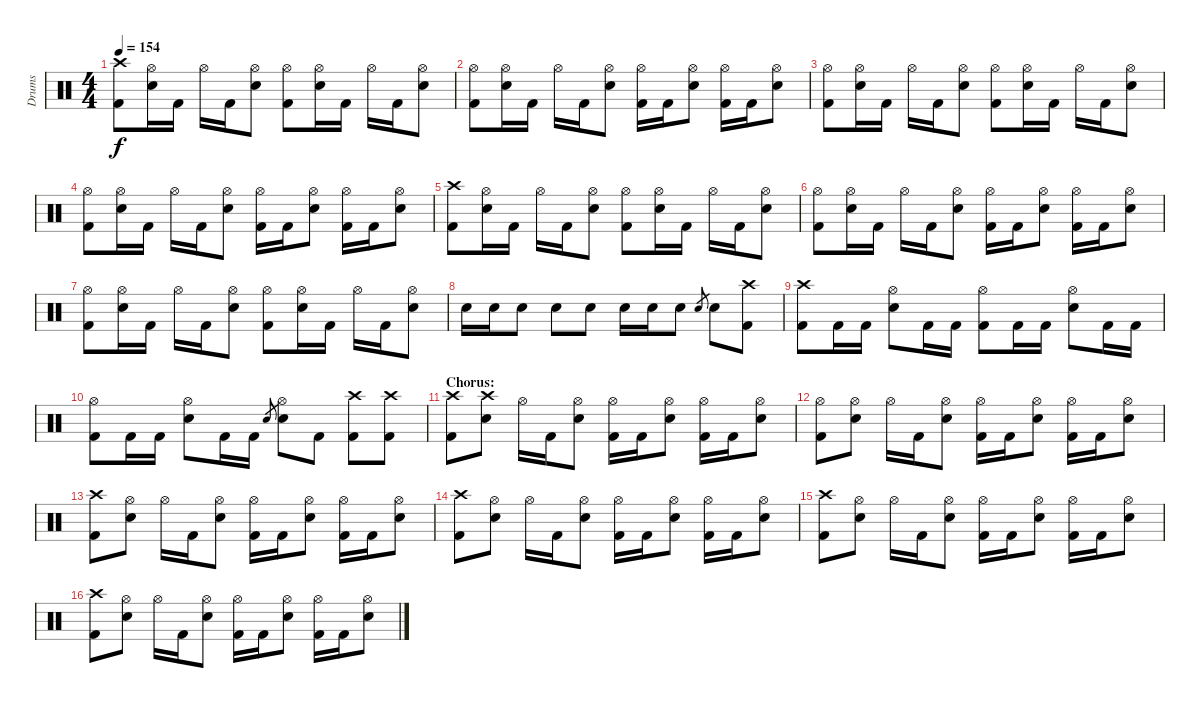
\track ("Drums" "Drums") {instrument percussion}
\staff {score}
\articulation defaults
\ts (4 4)
\tempo 154
\clef neutral
\ks c
("Crash high (hit)" "Kick (hit) 2").8{dy f} ("Hi-Hat (open)" "Snare (hit) 2").16 "Kick (hit) 2".16 "Hi-Hat (open)".16 "Kick (hit) 2".16 ("Hi-Hat (open)" "Snare (hit) 2").8 ("Hi-Hat (open)" "Kick (hit) 2").8 ("Hi-Hat (open)" "Snare (hit) 2").16 "Kick (hit) 2".16 "Hi-Hat (open)".16 "Kick (hit) 2".16 ("Hi-Hat (open)" "Snare (hit) 2").8 |
("Hi-Hat (open)" "Kick (hit) 2").8 ("Hi-Hat (open)" "Snare (hit) 2").16 "Kick (hit) 2".16 "Hi-Hat (open)".16 "Kick (hit) 2".16 ("Hi-Hat (open)" "Snare (hit) 2").8 ("Hi-Hat (open)" "Kick (hit) 2").16 "Kick (hit) 2".16 ("Hi-Hat (open)" "Snare (hit) 2").8 ("Hi-Hat (open)" "Kick (hit) 2").16 "Kick (hit) 2".16 ("Hi-Hat (open)" "Snare (hit) 2").8 |
("Hi-Hat (open)" "Kick (hit) 2").8 ("Hi-Hat (open)" "Snare (hit) 2").16 "Kick (hit) 2".16 "Hi-Hat (open)".16 "Kick (hit) 2".16 ("Hi-Hat (open)" "Snare (hit) 2").8 ("Hi-Hat (open)" "Kick (hit) 2").8 ("Hi-Hat (open)" "Snare (hit) 2").16 "Kick (hit) 2".16 "Hi-Hat (open)".16 "Kick (hit) 2".16 ("Hi-Hat (open)" "Snare (hit) 2").8 |
("Hi-Hat (open)" "Kick (hit) 2").8 ("Hi-Hat (open)" "Snare (hit) 2").16 "Kick (hit) 2".16 "Hi-Hat (open)".16 "Kick (hit) 2".16 ("Hi-Hat (open)" "Snare (hit) 2").8 ("Hi-Hat (open)" "Kick (hit) 2").16 "Kick (hit) 2".16 ("Hi-Hat (open)" "Snare (hit) 2").8 ("Hi-Hat (open)" "Kick (hit) 2").16 "Kick (hit) 2".16 ("Hi-Hat (open)" "Snare (hit) 2").8 |
("Crash high (hit)" "Kick (hit) 2").8 ("Hi-Hat (open)" "Snare (hit) 2").16 "Kick (hit) 2".16 "Hi-Hat (open)".16 "Kick (hit) 2".16 ("Hi-Hat (open)" "Snare (hit) 2").8 ("Hi-Hat (open)" "Kick (hit) 2").8 ("Hi-Hat (open)" "Snare (hit) 2").16 "Kick (hit) 2".16 "Hi-Hat (open)".16 "Kick (hit) 2".16 ("Hi-Hat (open)" "Snare (hit) 2").8 |
("Hi-Hat (open)" "Kick (hit) 2").8 ("Hi-Hat (open)" "Snare (hit) 2").16 "Kick (hit) 2".16 "Hi-Hat (open)".16 "Kick (hit) 2".16 ("Hi-Hat (open)" "Snare (hit) 2").8 ("Hi-Hat (open)" "Kick (hit) 2").16 "Kick (hit) 2".16 ("Hi-Hat (open)" "Snare (hit) 2").8 ("Hi-Hat (open)" "Kick (hit) 2").16 "Kick (hit) 2".16 ("Hi-Hat (open)" "Snare (hit) 2").8 |
("Hi-Hat (open)" "Kick (hit) 2").8 ("Hi-Hat (open)" "Snare (hit) 2").16 "Kick (hit) 2".16 "Hi-Hat (open)".16 "Kick (hit) 2".16 ("Hi-Hat (open)" "Snare (hit) 2").8 ("Hi-Hat (open)" "Kick (hit) 2").8 ("Hi-Hat (open)" "Snare (hit) 2").16 "Kick (hit) 2".16 "Hi-Hat (open)".16 "Kick (hit) 2".16 ("Hi-Hat (open)" "Snare (hit) 2").8 |
"Snare (hit) 2".16 "Snare (hit) 2".16 "Snare (hit) 2".8 "Snare (hit) 2".8 "Snare (hit) 2".8 "Snare (hit) 2".16 "Snare (hit) 2".16 "Snare (hit) 2".8 "Snare (hit) 2".8{gr} "Snare (hit) 2".8 ("Crash high (hit)" "Kick (hit) 2").8 |
("Crash high (hit)" "Kick (hit) 2").8 "Kick (hit) 2".16 "Kick (hit) 2".16 ("Hi-Hat (open)" "Snare (hit) 2").8 "Kick (hit) 2".16 "Kick (hit) 2".16 ("Hi-Hat (open)" "Kick (hit) 2").8 "Kick (hit) 2".16 "Kick (hit) 2".16 ("Hi-Hat (open)" "Snare (hit) 2").8 "Kick (hit) 2".16 "Kick (hit) 2".16 |
("Hi-Hat (open)" "Kick (hit) 2").8 "Kick (hit) 2".16 "Kick (hit) 2".16 ("Hi-Hat (open)" "Snare (hit) 2").8 "Kick (hit) 2".16 "Kick (hit) 2".16 "Snare (hit) 2".8{gr} ("Hi-Hat (open)" "Snare (hit) 2").8 "Kick (hit) 2".8 ("Crash high (hit)" "Kick (hit) 2").8 ("Crash high (hit)" "Kick (hit) 2").8 |
\section ("" "Chorus:")
("Crash high (hit)" "Kick (hit) 2").8 ("Crash high (hit)" "Snare (hit) 2").8 "Hi-Hat (open)".16 "Kick (hit) 2".16 ("Hi-Hat (open)" "Snare (hit) 2").8 ("Hi-Hat (open)" "Kick (hit) 2").16 "Kick (hit) 2".16 ("Hi-Hat (open)" "Snare (hit) 2").8 ("Hi-Hat (open)" "Kick (hit) 2").16 "Kick (hit) 2".16 ("Hi-Hat (open)" "Snare (hit) 2").8 |
("Hi-Hat (open)" "Kick (hit) 2").8 ("Hi-Hat (open)" "Snare (hit) 2").8 "Hi-Hat (open)".16 "Kick (hit) 2".16 ("Hi-Hat (open)" "Snare (hit) 2").8 ("Hi-Hat (open)" "Kick (hit) 2").16 "Kick (hit) 2".16 ("Hi-Hat (open)" "Snare (hit) 2").8 ("Hi-Hat (open)" "Kick (hit) 2").16 "Kick (hit) 2".16 ("Hi-Hat (open)" "Snare (hit) 2").8 |
("Crash high (hit)" "Kick (hit) 2").8 ("Hi-Hat (open)" "Snare (hit) 2").8 "Hi-Hat (open)".16 "Kick (hit) 2".16 ("Hi-Hat (open)" "Snare (hit) 2").8 ("Hi-Hat (open)" "Kick (hit) 2").16 "Kick (hit) 2".16 ("Hi-Hat (open)" "Snare (hit) 2").8 ("Hi-Hat (open)" "Kick (hit) 2").16 "Kick (hit) 2".16 ("Hi-Hat (open)" "Snare (hit) 2").8 |
("Crash high (hit)" "Kick (hit) 2").8 ("Hi-Hat (open)" "Snare (hit) 2").8 "Hi-Hat (open)".16 "Kick (hit) 2".16 ("Hi-Hat (open)" "Snare (hit) 2").8 ("Hi-Hat (open)" "Kick (hit) 2").16 "Kick (hit) 2".16 ("Hi-Hat (open)" "Snare (hit) 2").8 ("Hi-Hat (open)" "Kick (hit) 2").16 "Kick (hit) 2".16 ("Hi-Hat (open)" "Snare (hit) 2").8 |
("Crash high (hit)" "Kick (hit) 2").8 ("Hi-Hat (open)" "Snare (hit) 2").8 "Hi-Hat (open)".16 "Kick (hit) 2".16 ("Hi-Hat (open)" "Snare (hit) 2").8 ("Hi-Hat (open)" "Kick (hit) 2").16 "Kick (hit) 2".16 ("Hi-Hat (open)" "Snare (hit) 2").8 ("Hi-Hat (open)" "Kick (hit) 2").16 "Kick (hit) 2".16 ("Hi-Hat (open)" "Snare (hit) 2").8 |
("Crash high (hit)" "Kick (hit) 2").8 ("Hi-Hat (open)" "Snare (hit) 2").8 "Hi-Hat (open)".16 "Kick (hit) 2".16 ("Hi-Hat (open)" "Snare (hit) 2").8 ("Hi-Hat (open)" "Kick (hit) 2").16 "Kick (hit) 2".16 ("Hi-Hat (open)" "Snare (hit) 2").8 ("Hi-Hat (open)" "Kick (hit) 2").16 "Kick (hit) 2".16 ("Hi-Hat (open)" "Snare (hit) 2").8
